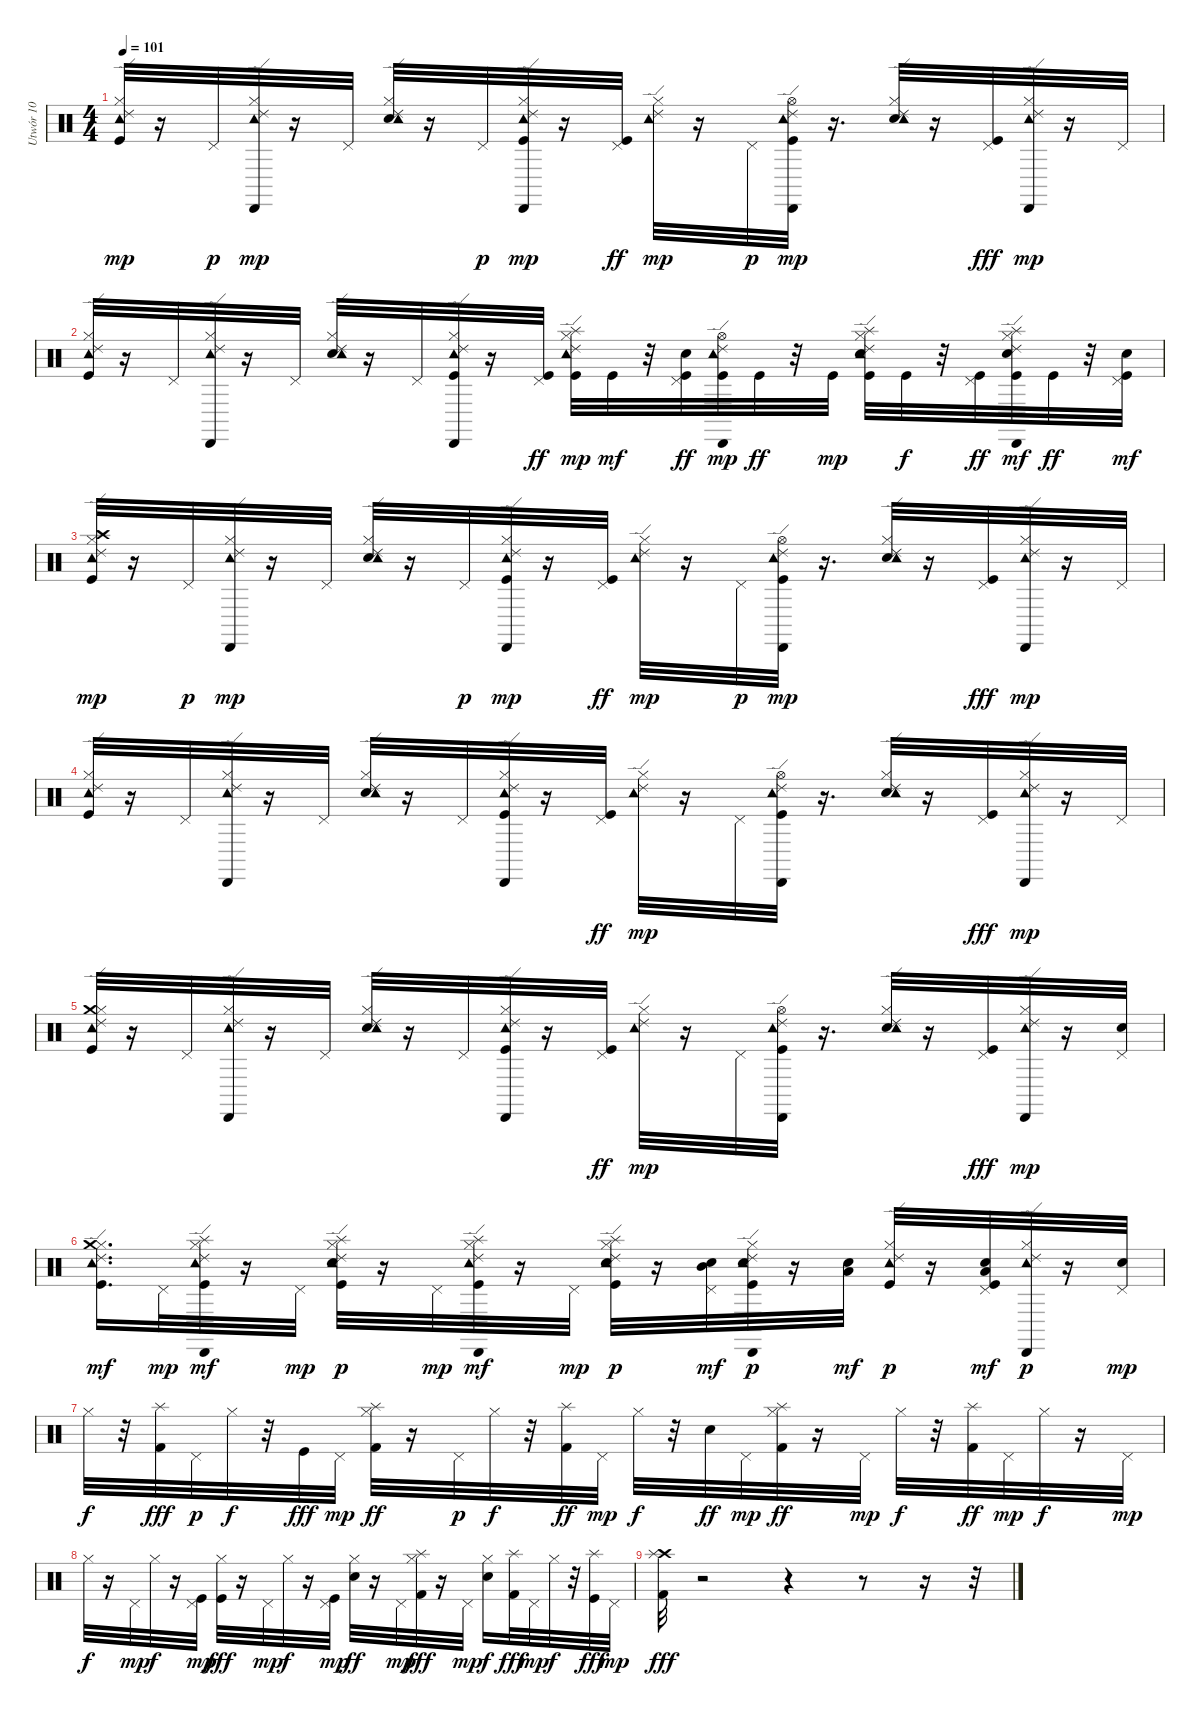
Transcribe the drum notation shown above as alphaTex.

\track ("Utwór 10" "Utwór 10") {instrument percussion}
\staff {score}
\articulation defaults
\ts (4 4)
\tempo 101
\clef neutral
\ks c
("Ride (edge) 2" "Hi-Hat (closed)" "Kick (hit)" "Tambourine (hit)").32{dy mp} r.16 "Pedal Hi-Hat (hit)".32{dy p} ("Ride (edge) 2" "Cabasa (hit)" "Hi-Hat (closed)" "Tambourine (hit)").32{dy mp} r.16 "Pedal Hi-Hat (hit)".32 ("Ride (edge) 2" "Electric Snare (hit)" "Hi-Hat (closed)" "Tambourine (hit)").32 r.16 "Pedal Hi-Hat (hit)".32{dy p} ("Ride (edge) 2" "Cabasa (hit)" "Hi-Hat (closed)" "Kick (hit)" "Tambourine (hit)").32{dy mp} r.16 ("Pedal Hi-Hat (hit)" "Kick (hit)").32{dy ff} ("Ride (edge) 2" "Hi-Hat (closed)" "Tambourine (hit)").32{dy mp} r.16 "Pedal Hi-Hat (hit)".32{dy p} ("Ride (edge) 2" "Cabasa (hit)" "Hi-Hat (open)" "Kick (hit)" "Tambourine (hit)").32{dy mp} r.16{d} ("Ride (edge) 2" "Electric Snare (hit)" "Hi-Hat (closed)" "Tambourine (hit)").32 r.16 ("Pedal Hi-Hat (hit)" "Kick (hit)").32{dy fff} ("Ride (edge) 2" "Cabasa (hit)" "Hi-Hat (closed)" "Tambourine (hit)").32{dy mp} r.16 "Pedal Hi-Hat (hit)".32 |
("Ride (edge) 2" "Hi-Hat (closed)" "Kick (hit)" "Tambourine (hit)").32 r.16 "Pedal Hi-Hat (hit)".32 ("Ride (edge) 2" "Cabasa (hit)" "Hi-Hat (closed)" "Tambourine (hit)").32 r.16 "Pedal Hi-Hat (hit)".32 ("Ride (edge) 2" "Electric Snare (hit)" "Hi-Hat (closed)" "Tambourine (hit)").32 r.16 "Pedal Hi-Hat (hit)".32 ("Ride (edge) 2" "Cabasa (hit)" "Hi-Hat (closed)" "Kick (hit)" "Tambourine (hit)").32 r.16 ("Pedal Hi-Hat (hit)" "Kick (hit)").32{dy ff} ("Ride (edge) 2" "Splash (hit)" "Hi-Hat (closed)" "Kick (hit)" "Tambourine (hit)").32{dy mp} "Kick (hit)".32{dy mf} r.32 ("Electric Snare (hit)" "Pedal Hi-Hat (hit)" "Kick (hit)").32{dy ff} ("Ride (edge) 2" "Cabasa (hit)" "Hi-Hat (open)" "Kick (hit)" "Tambourine (hit)").32{dy mp} "Kick (hit)".32{dy ff} r.32 "Kick (hit)".32{dy mp} ("Ride (edge) 2" "Splash (hit)" "Electric Snare (hit)" "Hi-Hat (closed)" "Kick (hit)" "Tambourine (hit)").32 "Kick (hit)".32{dy f} r.32 ("Pedal Hi-Hat (hit)" "Kick (hit)").32{dy ff} ("Ride (edge) 2" "Cabasa (hit)" "Splash (hit)" "Electric Snare (hit)" "Hi-Hat (closed)" "Kick (hit)").32{dy mf} "Kick (hit)".32{dy ff} r.32 ("Electric Snare (hit)" "Pedal Hi-Hat (hit)" "Kick (hit)").32{dy mf} |
("Ride (edge) 2" "Crash high (hit)" "Hi-Hat (closed)" "Kick (hit)" "Tambourine (hit)").32{dy mp} r.16 "Pedal Hi-Hat (hit)".32{dy p} ("Ride (edge) 2" "Cabasa (hit)" "Hi-Hat (closed)" "Tambourine (hit)").32{dy mp} r.16 "Pedal Hi-Hat (hit)".32 ("Ride (edge) 2" "Electric Snare (hit)" "Hi-Hat (closed)" "Tambourine (hit)").32 r.16 "Pedal Hi-Hat (hit)".32{dy p} ("Ride (edge) 2" "Cabasa (hit)" "Hi-Hat (closed)" "Kick (hit)" "Tambourine (hit)").32{dy mp} r.16 ("Pedal Hi-Hat (hit)" "Kick (hit)").32{dy ff} ("Ride (edge) 2" "Hi-Hat (closed)" "Tambourine (hit)").32{dy mp} r.16 "Pedal Hi-Hat (hit)".32{dy p} ("Ride (edge) 2" "Cabasa (hit)" "Hi-Hat (open)" "Kick (hit)" "Tambourine (hit)").32{dy mp} r.16{d} ("Ride (edge) 2" "Electric Snare (hit)" "Hi-Hat (closed)" "Tambourine (hit)").32 r.16 ("Pedal Hi-Hat (hit)" "Kick (hit)").32{dy fff} ("Ride (edge) 2" "Cabasa (hit)" "Hi-Hat (closed)" "Tambourine (hit)").32{dy mp} r.16 "Pedal Hi-Hat (hit)".32 |
("Ride (edge) 2" "Hi-Hat (closed)" "Kick (hit)" "Tambourine (hit)").32 r.16 "Pedal Hi-Hat (hit)".32 ("Ride (edge) 2" "Cabasa (hit)" "Hi-Hat (closed)" "Tambourine (hit)").32 r.16 "Pedal Hi-Hat (hit)".32 ("Ride (edge) 2" "Electric Snare (hit)" "Hi-Hat (closed)" "Tambourine (hit)").32 r.16 "Pedal Hi-Hat (hit)".32 ("Ride (edge) 2" "Cabasa (hit)" "Hi-Hat (closed)" "Kick (hit)" "Tambourine (hit)").32 r.16 ("Pedal Hi-Hat (hit)" "Kick (hit)").32{dy ff} ("Ride (edge) 2" "Hi-Hat (closed)" "Tambourine (hit)").32{dy mp} r.16 "Pedal Hi-Hat (hit)".32 ("Ride (edge) 2" "Cabasa (hit)" "Hi-Hat (open)" "Kick (hit)" "Tambourine (hit)").32 r.16{d} ("Ride (edge) 2" "Electric Snare (hit)" "Hi-Hat (closed)" "Tambourine (hit)").32 r.16 ("Pedal Hi-Hat (hit)" "Kick (hit)").32{dy fff} ("Ride (edge) 2" "Cabasa (hit)" "Hi-Hat (closed)" "Tambourine (hit)").32{dy mp} r.16 "Pedal Hi-Hat (hit)".32 |
("Ride (edge) 2" "Crash medium (hit)" "Hi-Hat (closed)" "Kick (hit)" "Tambourine (hit)").32 r.16 "Pedal Hi-Hat (hit)".32 ("Ride (edge) 2" "Cabasa (hit)" "Hi-Hat (closed)" "Tambourine (hit)").32 r.16 "Pedal Hi-Hat (hit)".32 ("Ride (edge) 2" "Electric Snare (hit)" "Hi-Hat (closed)" "Tambourine (hit)").32 r.16 "Pedal Hi-Hat (hit)".32 ("Ride (edge) 2" "Cabasa (hit)" "Hi-Hat (closed)" "Kick (hit)" "Tambourine (hit)").32 r.16 ("Pedal Hi-Hat (hit)" "Kick (hit)").32{dy ff} ("Ride (edge) 2" "Hi-Hat (closed)" "Tambourine (hit)").32{dy mp} r.16 "Pedal Hi-Hat (hit)".32 ("Ride (edge) 2" "Cabasa (hit)" "Hi-Hat (open)" "Kick (hit)" "Tambourine (hit)").32 r.16{d} ("Ride (edge) 2" "Electric Snare (hit)" "Hi-Hat (closed)" "Tambourine (hit)").32 r.16 ("Pedal Hi-Hat (hit)" "Kick (hit)").32{dy fff} ("Ride (edge) 2" "Cabasa (hit)" "Hi-Hat (closed)" "Tambourine (hit)").32{dy mp} r.16 ("Electric Snare (hit)" "Pedal Hi-Hat (hit)").32 |
("Ride (edge) 2" "Hi-Hat (closed)" "Kick (hit)" "Tambourine (hit)" "Crash medium (hit)").16{d dy mf} "Pedal Hi-Hat (hit)".32{dy mp} ("Ride (edge) 2" "Cabasa (hit)" "Hi-Hat (closed)" "Kick (hit)" "Tambourine (hit)" "Splash (hit)").32{dy mf} r.16 "Pedal Hi-Hat (hit)".32{dy mp} ("Ride (edge) 2" "Splash (hit)" "Electric Snare (hit)" "Hi-Hat (closed)" "Kick (hit)" "Tambourine (hit)").32{dy p} r.16 "Pedal Hi-Hat (hit)".32{dy mp} ("Ride (edge) 2" "Cabasa (hit)" "Hi-Hat (closed)" "Kick (hit)" "Tambourine (hit)" "Splash (hit)").32{dy mf} r.16 "Pedal Hi-Hat (hit)".32{dy mp} ("Ride (edge) 2" "Splash (hit)" "Electric Snare (hit)" "Hi-Hat (closed)" "Kick (hit)" "Tambourine (hit)").32{dy p} r.16 ("Electric Snare (hit)" "Pedal Hi-Hat (hit)" "Mid Tom (hit)").32{dy mf} ("Ride (edge) 2" "Cabasa (hit)" "Electric Snare (hit)" "Hi-Hat (closed)" "Kick (hit)" "Tambourine (hit)").32{dy p} r.16 ("Electric Snare (hit)" "Low Floor Tom (hit)").32{dy mf} ("Ride (edge) 2" "Hi-Hat (closed)" "Kick (hit)" "Tambourine (hit)").32{dy p} r.16 ("Electric Snare (hit)" "Pedal Hi-Hat (hit)" "Kick (hit)" "Low Tom (hit)").32{dy mf} ("Ride (edge) 2" "Cabasa (hit)" "Hi-Hat (closed)" "Tambourine (hit)").32{dy p} r.16 ("Electric Snare (hit)" "Pedal Hi-Hat (hit)").32{dy mp} |
"Hi-Hat (closed)".32{dy f} r.32 ("Splash (hit)" "Kick (hit) 2").32{dy fff} "Pedal Hi-Hat (hit)".32{dy p} "Hi-Hat (closed)".32{dy f} r.32 "Kick (hit)".32{dy fff} "Pedal Hi-Hat (hit)".32{dy mp} ("Splash (hit)" "Kick (hit) 2" "Hi-Hat (closed)").32{dy ff} r.16 "Pedal Hi-Hat (hit)".32{dy p} "Hi-Hat (closed)".32{dy f} r.32 ("Splash (hit)" "Kick (hit) 2").32{dy ff} "Pedal Hi-Hat (hit)".32{dy mp} "Hi-Hat (closed)".32{dy f} r.32 "Electric Snare (hit)".32{dy ff} "Pedal Hi-Hat (hit)".32{dy mp} ("Splash (hit)" "Kick (hit) 2" "Hi-Hat (closed)").32{dy ff} r.16 "Pedal Hi-Hat (hit)".32{dy mp} "Hi-Hat (closed)".32{dy f} r.32 ("Splash (hit)" "Kick (hit) 2").32{dy ff} "Pedal Hi-Hat (hit)".32{dy mp} "Hi-Hat (closed)".32{dy f} r.16 "Pedal Hi-Hat (hit)".32{dy mp} |
"Hi-Hat (closed)".32{dy f} r.16 "Pedal Hi-Hat (hit)".32{dy mp} "Hi-Hat (closed)".32{dy f} r.16 ("Kick (hit)" "Pedal Hi-Hat (hit)").32{dy mp} ("Kick (hit)" "Hi-Hat (closed)").32{dy fff} r.16 "Pedal Hi-Hat (hit)".32{dy mp} "Hi-Hat (closed)".32{dy f} r.16 ("Kick (hit)" "Pedal Hi-Hat (hit)").32{dy mp} ("Electric Snare (hit)" "Hi-Hat (closed)").32{dy ff} r.16 "Pedal Hi-Hat (hit)".32{dy mp} ("Splash (hit)" "Kick (hit) 2" "Hi-Hat (closed)").32{dy fff} r.16 "Pedal Hi-Hat (hit)".32{dy mp} ("Electric Snare (hit)" "Hi-Hat (closed)").16{dy f} ("Splash (hit)" "Kick (hit) 2").32{dy fff} "Pedal Hi-Hat (hit)".32{dy mp} "Hi-Hat (closed)".32{dy f} r.32 ("Splash (hit)" "Kick (hit)").32{dy fff} "Pedal Hi-Hat (hit)".32{dy mp} |
("Crash high (hit)" "Splash (hit)" "Kick (hit) 2").32{dy fff} r.2 r.4 r.8 r.16 r.32
